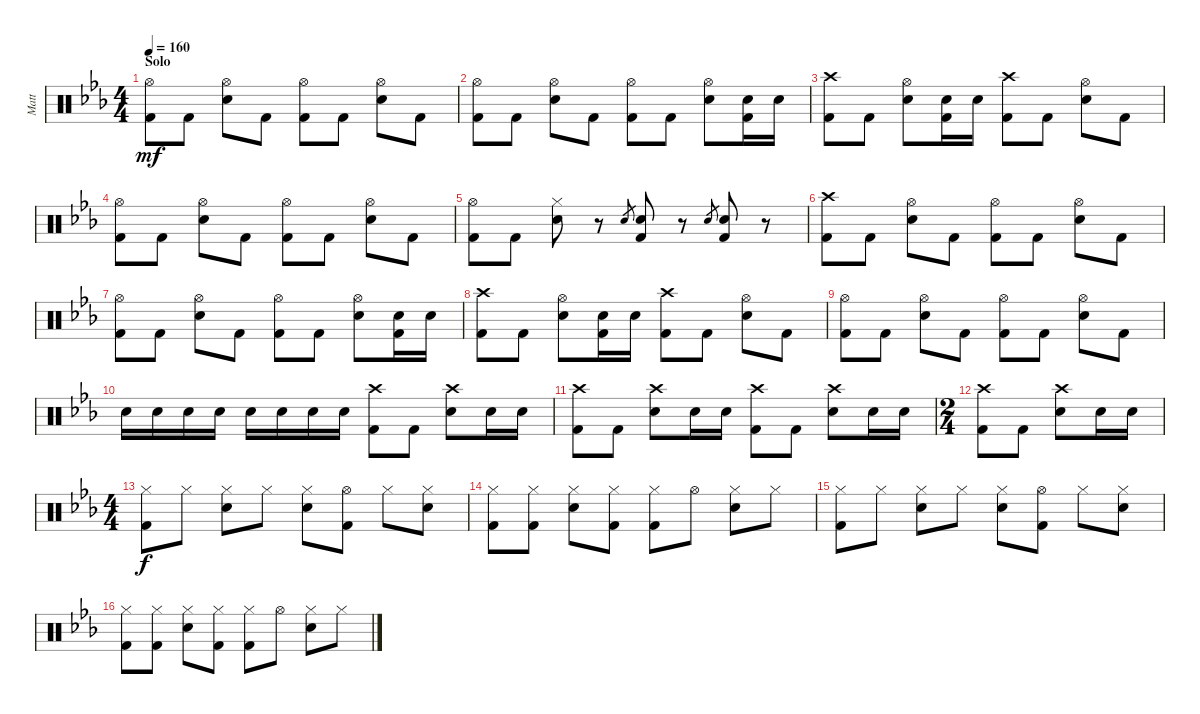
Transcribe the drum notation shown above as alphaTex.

\track ("Matt" "Matt") {instrument percussion}
\staff {score}
\articulation defaults
\ts (4 4)
\section ("" "Solo")
\tempo 160
\clef neutral
\ks cminor
("Hi-Hat (open)" "Kick (hit) 2").8{dy mf} "Kick (hit) 2".8 ("Hi-Hat (open)" "Electric Snare (hit)").8 "Kick (hit) 2".8 ("Hi-Hat (open)" "Kick (hit) 2").8 "Kick (hit) 2".8 ("Hi-Hat (open)" "Electric Snare (hit)").8 "Kick (hit) 2".8 |
("Hi-Hat (open)" "Kick (hit) 2").8 "Kick (hit) 2".8 ("Hi-Hat (open)" "Electric Snare (hit)").8 "Kick (hit) 2".8 ("Hi-Hat (open)" "Kick (hit) 2").8 "Kick (hit) 2".8 ("Hi-Hat (open)" "Electric Snare (hit)").8 ("Electric Snare (hit)" "Kick (hit) 2").16 "Electric Snare (hit)".16 |
("Crash high (hit)" "Kick (hit) 2").8 "Kick (hit) 2".8 ("Hi-Hat (open)" "Electric Snare (hit)").8 ("Electric Snare (hit)" "Kick (hit) 2").16 "Electric Snare (hit)".16 ("Crash high (hit)" "Kick (hit) 2").8 "Kick (hit) 2".8 ("Hi-Hat (open)" "Electric Snare (hit)").8 "Kick (hit) 2".8 |
("Hi-Hat (open)" "Kick (hit) 2").8 "Kick (hit) 2".8 ("Hi-Hat (open)" "Electric Snare (hit)").8 "Kick (hit) 2".8 ("Hi-Hat (open)" "Kick (hit) 2").8 "Kick (hit) 2".8 ("Hi-Hat (open)" "Electric Snare (hit)").8 "Kick (hit) 2".8 |
("Hi-Hat (open)" "Kick (hit) 2").8 "Kick (hit) 2".8 ("Hi-Hat (closed)" "Electric Snare (hit)").8 r.8 "Electric Snare (hit)".8{gr} ("Electric Snare (hit)" "Kick (hit) 2").8 r.8 "Electric Snare (hit)".8{gr} ("Electric Snare (hit)" "Kick (hit) 2").8 r.8 |
("Crash high (hit)" "Kick (hit) 2").8 "Kick (hit) 2".8 ("Hi-Hat (open)" "Electric Snare (hit)").8 "Kick (hit) 2".8 ("Hi-Hat (open)" "Kick (hit) 2").8 "Kick (hit) 2".8 ("Hi-Hat (open)" "Electric Snare (hit)").8 "Kick (hit) 2".8 |
("Hi-Hat (open)" "Kick (hit) 2").8 "Kick (hit) 2".8 ("Hi-Hat (open)" "Electric Snare (hit)").8 "Kick (hit) 2".8 ("Hi-Hat (open)" "Kick (hit) 2").8 "Kick (hit) 2".8 ("Hi-Hat (open)" "Electric Snare (hit)").8 ("Electric Snare (hit)" "Kick (hit) 2").16 "Electric Snare (hit)".16 |
("Crash high (hit)" "Kick (hit) 2").8 "Kick (hit) 2".8 ("Hi-Hat (open)" "Electric Snare (hit)").8 ("Electric Snare (hit)" "Kick (hit) 2").16 "Electric Snare (hit)".16 ("Crash high (hit)" "Kick (hit) 2").8 "Kick (hit) 2".8 ("Hi-Hat (open)" "Electric Snare (hit)").8 "Kick (hit) 2".8 |
("Hi-Hat (open)" "Kick (hit) 2").8 "Kick (hit) 2".8 ("Hi-Hat (open)" "Electric Snare (hit)").8 "Kick (hit) 2".8 ("Hi-Hat (open)" "Kick (hit) 2").8 "Kick (hit) 2".8 ("Hi-Hat (open)" "Electric Snare (hit)").8 "Kick (hit) 2".8 |
"Electric Snare (hit)".16 "Electric Snare (hit)".16 "Electric Snare (hit)".16 "Electric Snare (hit)".16 "Electric Snare (hit)".16 "Electric Snare (hit)".16 "Electric Snare (hit)".16 "Electric Snare (hit)".16 ("Crash high (hit)" "Kick (hit) 2").8 "Kick (hit) 2".8 ("Crash high (hit)" "Electric Snare (hit)").8 "Electric Snare (hit)".16 "Electric Snare (hit)".16 |
("Crash high (hit)" "Kick (hit) 2").8 "Kick (hit) 2".8 ("Crash high (hit)" "Electric Snare (hit)").8 "Electric Snare (hit)".16 "Electric Snare (hit)".16 ("Crash high (hit)" "Kick (hit) 2").8 "Kick (hit) 2".8 ("Crash high (hit)" "Electric Snare (hit)").8 "Electric Snare (hit)".16 "Electric Snare (hit)".16 |
\ts (2 4)
("Crash high (hit)" "Kick (hit) 2").8 "Kick (hit) 2".8 ("Crash high (hit)" "Electric Snare (hit)").8 "Electric Snare (hit)".16 "Electric Snare (hit)".16 |
\ts (4 4)
("Hi-Hat (closed)" "Kick (hit) 2").8{dy f} "Hi-Hat (closed)".8 ("Hi-Hat (closed)" "Electric Snare (hit)").8 "Hi-Hat (closed)".8 ("Hi-Hat (closed)" "Electric Snare (hit)").8 ("Hi-Hat (open)" "Kick (hit) 2").8 "Hi-Hat (closed)".8 ("Hi-Hat (closed)" "Electric Snare (hit)").8 |
("Hi-Hat (closed)" "Kick (hit) 2").8 ("Hi-Hat (closed)" "Kick (hit) 2").8 ("Hi-Hat (closed)" "Electric Snare (hit)").8 ("Hi-Hat (closed)" "Kick (hit) 2").8 ("Hi-Hat (closed)" "Kick (hit) 2").8 "Hi-Hat (open)".8 ("Hi-Hat (closed)" "Electric Snare (hit)").8 "Hi-Hat (closed)".8 |
("Hi-Hat (closed)" "Kick (hit) 2").8 "Hi-Hat (closed)".8 ("Hi-Hat (closed)" "Electric Snare (hit)").8 "Hi-Hat (closed)".8 ("Hi-Hat (closed)" "Electric Snare (hit)").8 ("Hi-Hat (open)" "Kick (hit) 2").8 "Hi-Hat (closed)".8 ("Hi-Hat (closed)" "Electric Snare (hit)").8 |
("Hi-Hat (closed)" "Kick (hit) 2").8 ("Hi-Hat (closed)" "Kick (hit) 2").8 ("Hi-Hat (closed)" "Electric Snare (hit)").8 ("Hi-Hat (closed)" "Kick (hit) 2").8 ("Hi-Hat (closed)" "Kick (hit) 2").8 "Hi-Hat (open)".8 ("Hi-Hat (closed)" "Electric Snare (hit)").8 "Hi-Hat (closed)".8
